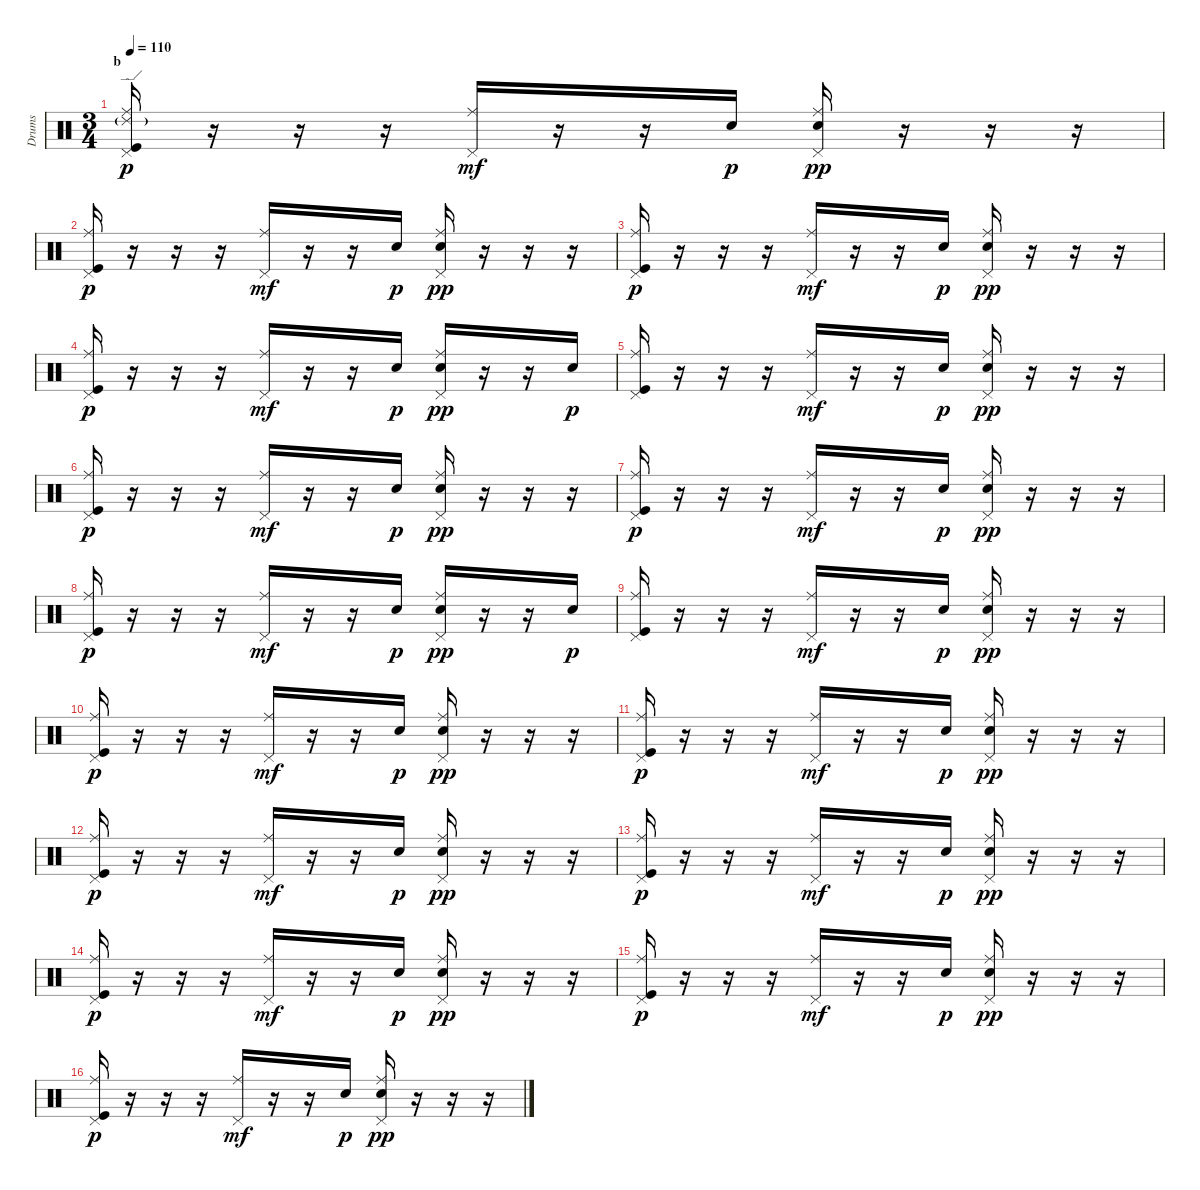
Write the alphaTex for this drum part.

\track ("Drums" "Drums") {instrument percussion}
\staff {score}
\articulation defaults
\ts (3 4)
\section ("" "b")
\tempo 110
\clef neutral
\ks c
("Pedal Hi-Hat (hit)" "Ride (middle)" "Ride (edge) 2"{g} "Kick (hit)").16{dy p} r.16 r.16 r.16 ("Pedal Hi-Hat (hit)" "Ride (middle)").16{dy mf} r.16 r.16 "Snare (hit) 2".16{dy p} ("Pedal Hi-Hat (hit)" "Ride (middle)" "Snare (hit) 2").16{dy pp} r.16 r.16 r.16 |
("Pedal Hi-Hat (hit)" "Ride (middle)" "Kick (hit)").16{dy p} r.16 r.16 r.16 ("Pedal Hi-Hat (hit)" "Ride (middle)").16{dy mf} r.16 r.16 "Snare (hit) 2".16{dy p} ("Pedal Hi-Hat (hit)" "Ride (middle)" "Snare (hit) 2").16{dy pp} r.16 r.16 r.16 |
("Pedal Hi-Hat (hit)" "Ride (middle)" "Kick (hit)").16{dy p} r.16 r.16 r.16 ("Pedal Hi-Hat (hit)" "Ride (middle)").16{dy mf} r.16 r.16 "Snare (hit) 2".16{dy p} ("Pedal Hi-Hat (hit)" "Ride (middle)" "Snare (hit) 2").16{dy pp} r.16 r.16 r.16 |
("Pedal Hi-Hat (hit)" "Ride (middle)" "Kick (hit)").16{dy p} r.16 r.16 r.16 ("Pedal Hi-Hat (hit)" "Ride (middle)").16{dy mf} r.16 r.16 "Snare (hit) 2".16{dy p} ("Pedal Hi-Hat (hit)" "Ride (middle)" "Snare (hit) 2").16{dy pp} r.16 r.16 "Snare (hit) 2".16{dy p} |
("Pedal Hi-Hat (hit)" "Ride (middle)" "Kick (hit)").16 r.16 r.16 r.16 ("Pedal Hi-Hat (hit)" "Ride (middle)").16{dy mf} r.16 r.16 "Snare (hit) 2".16{dy p} ("Pedal Hi-Hat (hit)" "Ride (middle)" "Snare (hit) 2").16{dy pp} r.16 r.16 r.16 |
("Pedal Hi-Hat (hit)" "Ride (middle)" "Kick (hit)").16{dy p} r.16 r.16 r.16 ("Pedal Hi-Hat (hit)" "Ride (middle)").16{dy mf} r.16 r.16 "Snare (hit) 2".16{dy p} ("Pedal Hi-Hat (hit)" "Ride (middle)" "Snare (hit) 2").16{dy pp} r.16 r.16 r.16 |
("Pedal Hi-Hat (hit)" "Ride (middle)" "Kick (hit)").16{dy p} r.16 r.16 r.16 ("Pedal Hi-Hat (hit)" "Ride (middle)").16{dy mf} r.16 r.16 "Snare (hit) 2".16{dy p} ("Pedal Hi-Hat (hit)" "Ride (middle)" "Snare (hit) 2").16{dy pp} r.16 r.16 r.16 |
("Pedal Hi-Hat (hit)" "Ride (middle)" "Kick (hit)").16{dy p} r.16 r.16 r.16 ("Pedal Hi-Hat (hit)" "Ride (middle)").16{dy mf} r.16 r.16 "Snare (hit) 2".16{dy p} ("Pedal Hi-Hat (hit)" "Ride (middle)" "Snare (hit) 2").16{dy pp} r.16 r.16 "Snare (hit) 2".16{dy p} |
("Pedal Hi-Hat (hit)" "Ride (middle)" "Kick (hit)").16 r.16 r.16 r.16 ("Pedal Hi-Hat (hit)" "Ride (middle)").16{dy mf} r.16 r.16 "Snare (hit) 2".16{dy p} ("Pedal Hi-Hat (hit)" "Ride (middle)" "Snare (hit) 2").16{dy pp} r.16 r.16 r.16 |
("Pedal Hi-Hat (hit)" "Ride (middle)" "Kick (hit)").16{dy p} r.16 r.16 r.16 ("Pedal Hi-Hat (hit)" "Ride (middle)").16{dy mf} r.16 r.16 "Snare (hit) 2".16{dy p} ("Pedal Hi-Hat (hit)" "Ride (middle)" "Snare (hit) 2").16{dy pp} r.16 r.16 r.16 |
("Pedal Hi-Hat (hit)" "Ride (middle)" "Kick (hit)").16{dy p} r.16 r.16 r.16 ("Pedal Hi-Hat (hit)" "Ride (middle)").16{dy mf} r.16 r.16 "Snare (hit) 2".16{dy p} ("Pedal Hi-Hat (hit)" "Ride (middle)" "Snare (hit) 2").16{dy pp} r.16 r.16 r.16 |
("Pedal Hi-Hat (hit)" "Ride (middle)" "Kick (hit)").16{dy p} r.16 r.16 r.16 ("Pedal Hi-Hat (hit)" "Ride (middle)").16{dy mf} r.16 r.16 "Snare (hit) 2".16{dy p} ("Pedal Hi-Hat (hit)" "Ride (middle)" "Snare (hit) 2").16{dy pp} r.16 r.16 r.16 |
("Pedal Hi-Hat (hit)" "Ride (middle)" "Kick (hit)").16{dy p} r.16 r.16 r.16 ("Pedal Hi-Hat (hit)" "Ride (middle)").16{dy mf} r.16 r.16 "Snare (hit) 2".16{dy p} ("Pedal Hi-Hat (hit)" "Ride (middle)" "Snare (hit) 2").16{dy pp} r.16 r.16 r.16 |
("Pedal Hi-Hat (hit)" "Ride (middle)" "Kick (hit)").16{dy p} r.16 r.16 r.16 ("Pedal Hi-Hat (hit)" "Ride (middle)").16{dy mf} r.16 r.16 "Snare (hit) 2".16{dy p} ("Pedal Hi-Hat (hit)" "Ride (middle)" "Snare (hit) 2").16{dy pp} r.16 r.16 r.16 |
("Pedal Hi-Hat (hit)" "Ride (middle)" "Kick (hit)").16{dy p} r.16 r.16 r.16 ("Pedal Hi-Hat (hit)" "Ride (middle)").16{dy mf} r.16 r.16 "Snare (hit) 2".16{dy p} ("Pedal Hi-Hat (hit)" "Ride (middle)" "Snare (hit) 2").16{dy pp} r.16 r.16 r.16 |
("Pedal Hi-Hat (hit)" "Ride (middle)" "Kick (hit)").16{dy p} r.16 r.16 r.16 ("Pedal Hi-Hat (hit)" "Ride (middle)").16{dy mf} r.16 r.16 "Snare (hit) 2".16{dy p} ("Pedal Hi-Hat (hit)" "Ride (middle)" "Snare (hit) 2").16{dy pp} r.16 r.16 r.16
